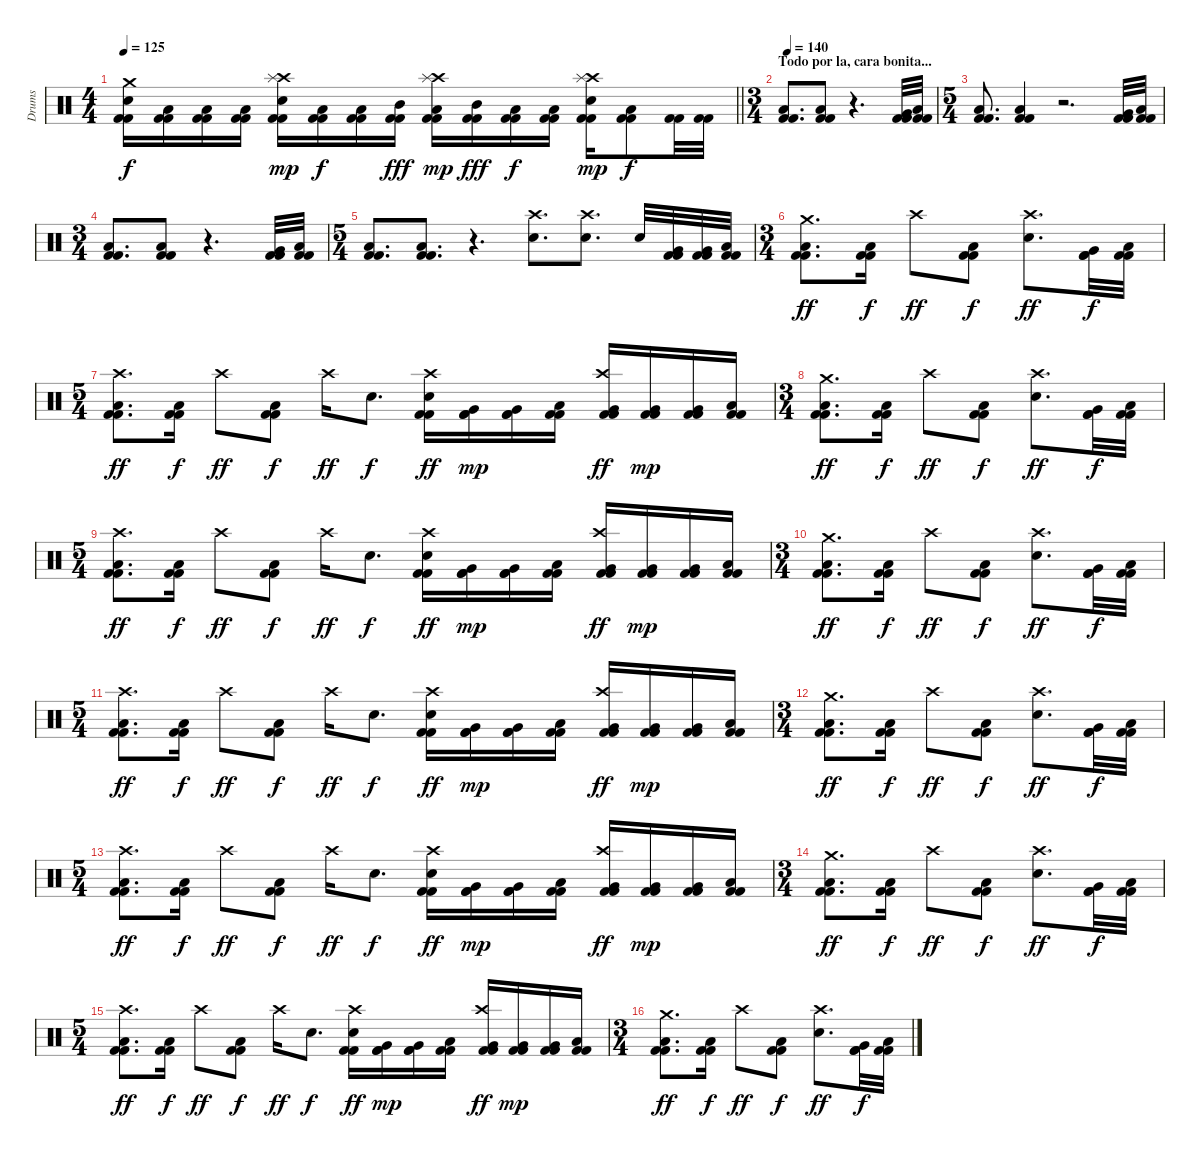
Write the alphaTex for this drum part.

\track ("Drums" "Drums") {instrument percussion}
\staff {score}
\articulation defaults
\ts (4 4)
\tempo 125
\clef neutral
\barLineRight lightlight
\ks c
("Crash medium (hit)" "Electric Snare (hit)" "Kick (hit) 2" "Kick (hit) 2").16{dy f} ("Low Floor Tom (hit)" "Kick (hit) 2" "Kick (hit) 2").16 ("Low Floor Tom (hit)" "Kick (hit) 2" "Kick (hit) 2").16 ("Low Floor Tom (hit)" "Kick (hit) 2" "Kick (hit) 2").16 ("Crash high (hit)" "Splash (hit)" "Electric Snare (hit)" "Kick (hit) 2" "Kick (hit) 2").16{dy mp} ("Low Floor Tom (hit)" "Kick (hit) 2" "Kick (hit) 2").16{dy f} ("Low Floor Tom (hit)" "Kick (hit) 2" "Kick (hit) 2").16 ("Mid Tom (hit)" "Kick (hit) 2" "Kick (hit) 2").16{dy fff} ("Crash high (hit)" "Splash (hit)" "Low Floor Tom (hit)" "Kick (hit) 2" "Kick (hit) 2").16{dy mp} ("Mid Tom (hit)" "Kick (hit) 2" "Kick (hit) 2").16{dy fff} ("Low Floor Tom (hit)" "Kick (hit) 2" "Kick (hit) 2").16{dy f} ("Low Floor Tom (hit)" "Kick (hit) 2" "Kick (hit) 2").16 ("Crash high (hit)" "Splash (hit)" "Electric Snare (hit)" "Kick (hit) 2" "Kick (hit) 2").16{dy mp} ("Low Floor Tom (hit)" "Kick (hit) 2" "Kick (hit) 2").8{dy f} ("Kick (hit) 2" "Kick (hit) 2").32 ("Kick (hit) 2" "Kick (hit) 2").32 |
\ts (3 4)
\section ("" "Todo por la, cara bonita...")
\tempo 140
("Low Floor Tom (hit)" "Kick (hit) 2" "Kick (hit) 2").8{d} ("Low Floor Tom (hit)" "Kick (hit) 2" "Kick (hit) 2").8 r.4{d} ("Very Low Tom (hit)" "Kick (hit) 2" "Kick (hit) 2").32 ("Low Floor Tom (hit)" "Kick (hit) 2" "Kick (hit) 2").32 |
\ts (5 4)
("Low Floor Tom (hit)" "Kick (hit) 2" "Kick (hit) 2").8{d} ("Low Floor Tom (hit)" "Kick (hit) 2" "Kick (hit) 2").4 r.2{d} ("Very Low Tom (hit)" "Kick (hit) 2" "Kick (hit) 2").32 ("Low Floor Tom (hit)" "Kick (hit) 2" "Kick (hit) 2").32 |
\ts (3 4)
("Low Floor Tom (hit)" "Kick (hit) 2" "Kick (hit) 2").8{d} ("Low Floor Tom (hit)" "Kick (hit) 2" "Kick (hit) 2").8 r.4{d} ("Very Low Tom (hit)" "Kick (hit) 2" "Kick (hit) 2").32 ("Low Floor Tom (hit)" "Kick (hit) 2" "Kick (hit) 2").32 |
\ts (5 4)
("Low Floor Tom (hit)" "Kick (hit) 2" "Kick (hit) 2").8{d} ("Low Floor Tom (hit)" "Kick (hit) 2" "Kick (hit) 2").8{d} r.4{d} ("Crash high (hit)" "Electric Snare (hit)").8{d} ("Crash high (hit)" "Electric Snare (hit)").8{d} "Electric Snare (hit)".32 ("Very Low Tom (hit)" "Kick (hit) 2" "Kick (hit) 2").32 ("Very Low Tom (hit)" "Kick (hit) 2" "Kick (hit) 2").32 ("Low Floor Tom (hit)" "Kick (hit) 2" "Kick (hit) 2").32 |
\ts (3 4)
("Crash medium (hit)" "Low Floor Tom (hit)" "Kick (hit) 2" "Kick (hit) 2").8{d dy ff} ("Low Floor Tom (hit)" "Kick (hit) 2" "Kick (hit) 2").16{dy f} "Crash high (hit)".8{dy ff} ("Low Floor Tom (hit)" "Kick (hit) 2" "Kick (hit) 2").8{dy f} ("Crash high (hit)" "Electric Snare (hit)").8{d dy ff} ("Very Low Tom (hit)" "Kick (hit) 2" "Kick (hit) 2").32{dy f} ("Low Floor Tom (hit)" "Kick (hit) 2" "Kick (hit) 2").32 |
\ts (5 4)
("Crash high (hit)" "Low Floor Tom (hit)" "Kick (hit) 2" "Kick (hit) 2").8{d dy ff} ("Low Floor Tom (hit)" "Kick (hit) 2" "Kick (hit) 2").16{dy f} "Crash high (hit)".8{dy ff} ("Low Floor Tom (hit)" "Kick (hit) 2" "Kick (hit) 2").8{dy f} "Crash high (hit)".16{dy ff} "Electric Snare (hit)".8{d dy f} ("Crash high (hit)" "Electric Snare (hit)" "Kick (hit) 2" "Kick (hit) 2").16{dy ff} ("Very Low Tom (hit)" "Kick (hit) 2" "Kick (hit) 2").16{dy mp} ("Very Low Tom (hit)" "Kick (hit) 2" "Kick (hit) 2").16 ("Low Floor Tom (hit)" "Kick (hit) 2" "Kick (hit) 2").16 ("Crash high (hit)" "Very Low Tom (hit)" "Kick (hit) 2" "Kick (hit) 2").16{dy ff} ("Very Low Tom (hit)" "Kick (hit) 2" "Kick (hit) 2").16{dy mp} ("Very Low Tom (hit)" "Kick (hit) 2" "Kick (hit) 2").16 ("Low Floor Tom (hit)" "Kick (hit) 2" "Kick (hit) 2").16 |
\ts (3 4)
("Crash medium (hit)" "Low Floor Tom (hit)" "Kick (hit) 2" "Kick (hit) 2").8{d dy ff} ("Low Floor Tom (hit)" "Kick (hit) 2" "Kick (hit) 2").16{dy f} "Crash high (hit)".8{dy ff} ("Low Floor Tom (hit)" "Kick (hit) 2" "Kick (hit) 2").8{dy f} ("Crash high (hit)" "Electric Snare (hit)").8{d dy ff} ("Very Low Tom (hit)" "Kick (hit) 2" "Kick (hit) 2").32{dy f} ("Low Floor Tom (hit)" "Kick (hit) 2" "Kick (hit) 2").32 |
\ts (5 4)
("Crash high (hit)" "Low Floor Tom (hit)" "Kick (hit) 2" "Kick (hit) 2").8{d dy ff} ("Low Floor Tom (hit)" "Kick (hit) 2" "Kick (hit) 2").16{dy f} "Crash high (hit)".8{dy ff} ("Low Floor Tom (hit)" "Kick (hit) 2" "Kick (hit) 2").8{dy f} "Crash high (hit)".16{dy ff} "Electric Snare (hit)".8{d dy f} ("Crash high (hit)" "Electric Snare (hit)" "Kick (hit) 2" "Kick (hit) 2").16{dy ff} ("Very Low Tom (hit)" "Kick (hit) 2" "Kick (hit) 2").16{dy mp} ("Very Low Tom (hit)" "Kick (hit) 2" "Kick (hit) 2").16 ("Low Floor Tom (hit)" "Kick (hit) 2" "Kick (hit) 2").16 ("Crash high (hit)" "Very Low Tom (hit)" "Kick (hit) 2" "Kick (hit) 2").16{dy ff} ("Very Low Tom (hit)" "Kick (hit) 2" "Kick (hit) 2").16{dy mp} ("Very Low Tom (hit)" "Kick (hit) 2" "Kick (hit) 2").16 ("Low Floor Tom (hit)" "Kick (hit) 2" "Kick (hit) 2").16 |
\ts (3 4)
("Crash medium (hit)" "Low Floor Tom (hit)" "Kick (hit) 2" "Kick (hit) 2").8{d dy ff} ("Low Floor Tom (hit)" "Kick (hit) 2" "Kick (hit) 2").16{dy f} "Crash high (hit)".8{dy ff} ("Low Floor Tom (hit)" "Kick (hit) 2" "Kick (hit) 2").8{dy f} ("Crash high (hit)" "Electric Snare (hit)").8{d dy ff} ("Very Low Tom (hit)" "Kick (hit) 2" "Kick (hit) 2").32{dy f} ("Low Floor Tom (hit)" "Kick (hit) 2" "Kick (hit) 2").32 |
\ts (5 4)
("Crash high (hit)" "Low Floor Tom (hit)" "Kick (hit) 2" "Kick (hit) 2").8{d dy ff} ("Low Floor Tom (hit)" "Kick (hit) 2" "Kick (hit) 2").16{dy f} "Crash high (hit)".8{dy ff} ("Low Floor Tom (hit)" "Kick (hit) 2" "Kick (hit) 2").8{dy f} "Crash high (hit)".16{dy ff} "Electric Snare (hit)".8{d dy f} ("Crash high (hit)" "Electric Snare (hit)" "Kick (hit) 2" "Kick (hit) 2").16{dy ff} ("Very Low Tom (hit)" "Kick (hit) 2" "Kick (hit) 2").16{dy mp} ("Very Low Tom (hit)" "Kick (hit) 2" "Kick (hit) 2").16 ("Low Floor Tom (hit)" "Kick (hit) 2" "Kick (hit) 2").16 ("Crash high (hit)" "Very Low Tom (hit)" "Kick (hit) 2" "Kick (hit) 2").16{dy ff} ("Very Low Tom (hit)" "Kick (hit) 2" "Kick (hit) 2").16{dy mp} ("Very Low Tom (hit)" "Kick (hit) 2" "Kick (hit) 2").16 ("Low Floor Tom (hit)" "Kick (hit) 2" "Kick (hit) 2").16 |
\ts (3 4)
("Crash medium (hit)" "Low Floor Tom (hit)" "Kick (hit) 2" "Kick (hit) 2").8{d dy ff} ("Low Floor Tom (hit)" "Kick (hit) 2" "Kick (hit) 2").16{dy f} "Crash high (hit)".8{dy ff} ("Low Floor Tom (hit)" "Kick (hit) 2" "Kick (hit) 2").8{dy f} ("Crash high (hit)" "Electric Snare (hit)").8{d dy ff} ("Very Low Tom (hit)" "Kick (hit) 2" "Kick (hit) 2").32{dy f} ("Low Floor Tom (hit)" "Kick (hit) 2" "Kick (hit) 2").32 |
\ts (5 4)
("Crash high (hit)" "Low Floor Tom (hit)" "Kick (hit) 2" "Kick (hit) 2").8{d dy ff} ("Low Floor Tom (hit)" "Kick (hit) 2" "Kick (hit) 2").16{dy f} "Crash high (hit)".8{dy ff} ("Low Floor Tom (hit)" "Kick (hit) 2" "Kick (hit) 2").8{dy f} "Crash high (hit)".16{dy ff} "Electric Snare (hit)".8{d dy f} ("Crash high (hit)" "Electric Snare (hit)" "Kick (hit) 2" "Kick (hit) 2").16{dy ff} ("Very Low Tom (hit)" "Kick (hit) 2" "Kick (hit) 2").16{dy mp} ("Very Low Tom (hit)" "Kick (hit) 2" "Kick (hit) 2").16 ("Low Floor Tom (hit)" "Kick (hit) 2" "Kick (hit) 2").16 ("Crash high (hit)" "Very Low Tom (hit)" "Kick (hit) 2" "Kick (hit) 2").16{dy ff} ("Very Low Tom (hit)" "Kick (hit) 2" "Kick (hit) 2").16{dy mp} ("Very Low Tom (hit)" "Kick (hit) 2" "Kick (hit) 2").16 ("Low Floor Tom (hit)" "Kick (hit) 2" "Kick (hit) 2").16 |
\ts (3 4)
("Crash medium (hit)" "Low Floor Tom (hit)" "Kick (hit) 2" "Kick (hit) 2").8{d dy ff} ("Low Floor Tom (hit)" "Kick (hit) 2" "Kick (hit) 2").16{dy f} "Crash high (hit)".8{dy ff} ("Low Floor Tom (hit)" "Kick (hit) 2" "Kick (hit) 2").8{dy f} ("Crash high (hit)" "Electric Snare (hit)").8{d dy ff} ("Very Low Tom (hit)" "Kick (hit) 2" "Kick (hit) 2").32{dy f} ("Low Floor Tom (hit)" "Kick (hit) 2" "Kick (hit) 2").32 |
\ts (5 4)
("Crash high (hit)" "Low Floor Tom (hit)" "Kick (hit) 2" "Kick (hit) 2").8{d dy ff} ("Low Floor Tom (hit)" "Kick (hit) 2" "Kick (hit) 2").16{dy f} "Crash high (hit)".8{dy ff} ("Low Floor Tom (hit)" "Kick (hit) 2" "Kick (hit) 2").8{dy f} "Crash high (hit)".16{dy ff} "Electric Snare (hit)".8{d dy f} ("Crash high (hit)" "Electric Snare (hit)" "Kick (hit) 2" "Kick (hit) 2").16{dy ff} ("Very Low Tom (hit)" "Kick (hit) 2" "Kick (hit) 2").16{dy mp} ("Very Low Tom (hit)" "Kick (hit) 2" "Kick (hit) 2").16 ("Low Floor Tom (hit)" "Kick (hit) 2" "Kick (hit) 2").16 ("Crash high (hit)" "Very Low Tom (hit)" "Kick (hit) 2" "Kick (hit) 2").16{dy ff} ("Very Low Tom (hit)" "Kick (hit) 2" "Kick (hit) 2").16{dy mp} ("Very Low Tom (hit)" "Kick (hit) 2" "Kick (hit) 2").16 ("Low Floor Tom (hit)" "Kick (hit) 2" "Kick (hit) 2").16 |
\ts (3 4)
("Crash medium (hit)" "Low Floor Tom (hit)" "Kick (hit) 2" "Kick (hit) 2").8{d dy ff} ("Low Floor Tom (hit)" "Kick (hit) 2" "Kick (hit) 2").16{dy f} "Crash high (hit)".8{dy ff} ("Low Floor Tom (hit)" "Kick (hit) 2" "Kick (hit) 2").8{dy f} ("Crash high (hit)" "Electric Snare (hit)").8{d dy ff} ("Very Low Tom (hit)" "Kick (hit) 2" "Kick (hit) 2").32{dy f} ("Low Floor Tom (hit)" "Kick (hit) 2" "Kick (hit) 2").32
